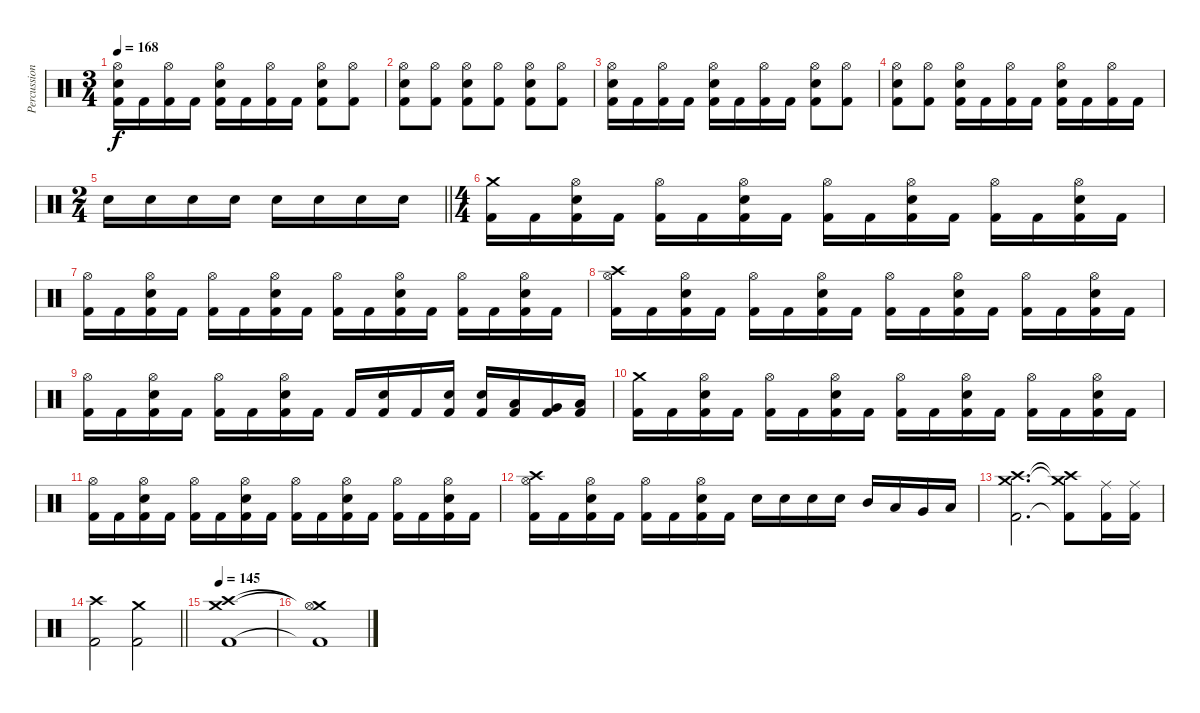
\track ("Percussions" "Percussion") {instrument percussion}
\staff {score}
\articulation defaults
\ts (3 4)
\tempo 168
\clef neutral
\ks c
("Hi-Hat (open)" "Snare (hit) 2" "Kick (hit) 2").16{dy f} "Kick (hit) 2".16 ("Hi-Hat (open)" "Kick (hit) 2").16 "Kick (hit) 2".16 ("Hi-Hat (open)" "Snare (hit) 2" "Kick (hit) 2").16 "Kick (hit) 2".16 ("Hi-Hat (open)" "Kick (hit) 2").16 "Kick (hit) 2".16 ("Hi-Hat (open)" "Snare (hit) 2" "Kick (hit) 2").8 ("Hi-Hat (open)" "Kick (hit) 2").8 |
("Hi-Hat (open)" "Snare (hit) 2" "Kick (hit) 2").8 ("Hi-Hat (open)" "Kick (hit) 2").8 ("Hi-Hat (open)" "Snare (hit) 2" "Kick (hit) 2").8 ("Hi-Hat (open)" "Kick (hit) 2").8 ("Hi-Hat (open)" "Snare (hit) 2" "Kick (hit) 2").8 ("Hi-Hat (open)" "Kick (hit) 2").8 |
("Hi-Hat (open)" "Snare (hit) 2" "Kick (hit) 2").16 "Kick (hit) 2".16 ("Hi-Hat (open)" "Kick (hit) 2").16 "Kick (hit) 2".16 ("Hi-Hat (open)" "Snare (hit) 2" "Kick (hit) 2").16 "Kick (hit) 2".16 ("Hi-Hat (open)" "Kick (hit) 2").16 "Kick (hit) 2".16 ("Hi-Hat (open)" "Snare (hit) 2" "Kick (hit) 2").8 ("Hi-Hat (open)" "Kick (hit) 2").8 |
("Hi-Hat (open)" "Snare (hit) 2" "Kick (hit) 2").8 ("Hi-Hat (open)" "Kick (hit) 2").8 ("Hi-Hat (open)" "Snare (hit) 2" "Kick (hit) 2").16 "Kick (hit) 2".16 ("Hi-Hat (open)" "Kick (hit) 2").16 "Kick (hit) 2".16 ("Hi-Hat (open)" "Snare (hit) 2" "Kick (hit) 2").16 "Kick (hit) 2".16 ("Hi-Hat (open)" "Kick (hit) 2").16 "Kick (hit) 2".16 |
\ts (2 4)
\barLineRight lightlight "Snare (hit) 2".16 "Snare (hit) 2".16 "Snare (hit) 2".16 "Snare (hit) 2".16 "Snare (hit) 2".16 "Snare (hit) 2".16 "Snare (hit) 2".16 "Snare (hit) 2".16
|
\ts (4 4)
("Crash medium (hit)" "Kick (hit) 2").16 "Kick (hit) 2".16 ("Hi-Hat (open)" "Snare (hit) 2" "Kick (hit) 2").16 "Kick (hit) 2".16 ("Hi-Hat (open)" "Kick (hit) 2").16 "Kick (hit) 2".16 ("Hi-Hat (open)" "Snare (hit) 2" "Kick (hit) 2").16 "Kick (hit) 2".16 ("Hi-Hat (open)" "Kick (hit) 2").16 "Kick (hit) 2".16 ("Hi-Hat (open)" "Snare (hit) 2" "Kick (hit) 2").16 "Kick (hit) 2".16 ("Hi-Hat (open)" "Kick (hit) 2").16 "Kick (hit) 2".16 ("Hi-Hat (open)" "Snare (hit) 2" "Kick (hit) 2").16 "Kick (hit) 2".16 |
("Hi-Hat (open)" "Kick (hit) 2").16 "Kick (hit) 2".16 ("Hi-Hat (open)" "Snare (hit) 2" "Kick (hit) 2").16 "Kick (hit) 2".16 ("Hi-Hat (open)" "Kick (hit) 2").16 "Kick (hit) 2".16 ("Hi-Hat (open)" "Snare (hit) 2" "Kick (hit) 2").16 "Kick (hit) 2".16 ("Hi-Hat (open)" "Kick (hit) 2").16 "Kick (hit) 2".16 ("Hi-Hat (open)" "Snare (hit) 2" "Kick (hit) 2").16 "Kick (hit) 2".16 ("Hi-Hat (open)" "Kick (hit) 2").16 "Kick (hit) 2".16 ("Hi-Hat (open)" "Snare (hit) 2" "Kick (hit) 2").16 "Kick (hit) 2".16 |
("Crash high (hit)" "Hi-Hat (open)" "Kick (hit) 2").16 "Kick (hit) 2".16 ("Hi-Hat (open)" "Snare (hit) 2" "Kick (hit) 2").16 "Kick (hit) 2".16 ("Hi-Hat (open)" "Kick (hit) 2").16 "Kick (hit) 2".16 ("Hi-Hat (open)" "Snare (hit) 2" "Kick (hit) 2").16 "Kick (hit) 2".16 ("Hi-Hat (open)" "Kick (hit) 2").16 "Kick (hit) 2".16 ("Hi-Hat (open)" "Snare (hit) 2" "Kick (hit) 2").16 "Kick (hit) 2".16 ("Hi-Hat (open)" "Kick (hit) 2").16 "Kick (hit) 2".16 ("Hi-Hat (open)" "Snare (hit) 2" "Kick (hit) 2").16 "Kick (hit) 2".16 |
("Hi-Hat (open)" "Kick (hit) 2").16 "Kick (hit) 2".16 ("Hi-Hat (open)" "Snare (hit) 2" "Kick (hit) 2").16 "Kick (hit) 2".16 ("Hi-Hat (open)" "Kick (hit) 2").16 "Kick (hit) 2".16 ("Hi-Hat (open)" "Snare (hit) 2" "Kick (hit) 2").16 "Kick (hit) 2".16 "Kick (hit) 2".16 ("Snare (hit) 2" "Kick (hit) 2").16 "Kick (hit) 2".16 ("Snare (hit) 2" "Kick (hit) 2").16 ("Snare (hit) 2" "Kick (hit) 2").16 ("Low Tom (hit)" "Kick (hit) 2").16 ("Very Low Tom (hit)" "Kick (hit) 2").16 ("Low Floor Tom (hit)" "Kick (hit) 2").16 |
("Crash medium (hit)" "Kick (hit) 2").16 "Kick (hit) 2".16 ("Hi-Hat (open)" "Snare (hit) 2" "Kick (hit) 2").16 "Kick (hit) 2".16 ("Hi-Hat (open)" "Kick (hit) 2").16 "Kick (hit) 2".16 ("Hi-Hat (open)" "Snare (hit) 2" "Kick (hit) 2").16 "Kick (hit) 2".16 ("Hi-Hat (open)" "Kick (hit) 2").16 "Kick (hit) 2".16 ("Hi-Hat (open)" "Snare (hit) 2" "Kick (hit) 2").16 "Kick (hit) 2".16 ("Hi-Hat (open)" "Kick (hit) 2").16 "Kick (hit) 2".16 ("Hi-Hat (open)" "Snare (hit) 2" "Kick (hit) 2").16 "Kick (hit) 2".16 |
("Hi-Hat (open)" "Kick (hit) 2").16 "Kick (hit) 2".16 ("Hi-Hat (open)" "Snare (hit) 2" "Kick (hit) 2").16 "Kick (hit) 2".16 ("Hi-Hat (open)" "Kick (hit) 2").16 "Kick (hit) 2".16 ("Hi-Hat (open)" "Snare (hit) 2" "Kick (hit) 2").16 "Kick (hit) 2".16 ("Hi-Hat (open)" "Kick (hit) 2").16 "Kick (hit) 2".16 ("Hi-Hat (open)" "Snare (hit) 2" "Kick (hit) 2").16 "Kick (hit) 2".16 ("Hi-Hat (open)" "Kick (hit) 2").16 "Kick (hit) 2".16 ("Hi-Hat (open)" "Snare (hit) 2" "Kick (hit) 2").16 "Kick (hit) 2".16 |
("Crash high (hit)" "Hi-Hat (open)" "Kick (hit) 2").16 "Kick (hit) 2".16 ("Hi-Hat (open)" "Snare (hit) 2" "Kick (hit) 2").16 "Kick (hit) 2".16 ("Hi-Hat (open)" "Kick (hit) 2").16 "Kick (hit) 2".16 ("Hi-Hat (open)" "Snare (hit) 2" "Kick (hit) 2").16 "Kick (hit) 2".16 "Snare (hit) 2".16 "Snare (hit) 2".16 "Snare (hit) 2".16 "Snare (hit) 2".16 "Mid Tom (hit)".16 "Low Tom (hit)".16 "Very Low Tom (hit)".16 "Low Floor Tom (hit)".16 |
("Crash medium (hit)" "Crash high (hit)" "Kick (hit) 2").2{d} ("Crash medium (hit)"{t} "Crash high (hit)"{t} "Kick (hit) 2"{t}).8 ("Ride (middle)" "Kick (hit) 2").16 ("Ride (middle)" "Kick (hit) 2").16 |
\barLineRight lightlight
("Crash high (hit)" "Kick (hit) 2").2 ("Crash medium (hit)" "Kick (hit) 2").2 |
\tempo 133
\tempo 145
("Crash medium (hit)" "Crash high (hit)" "Kick (hit) 2").1 |
("Crash medium (hit)"{t} "Hi-Hat (open)"{t} "Kick (hit) 2"{t}).1
